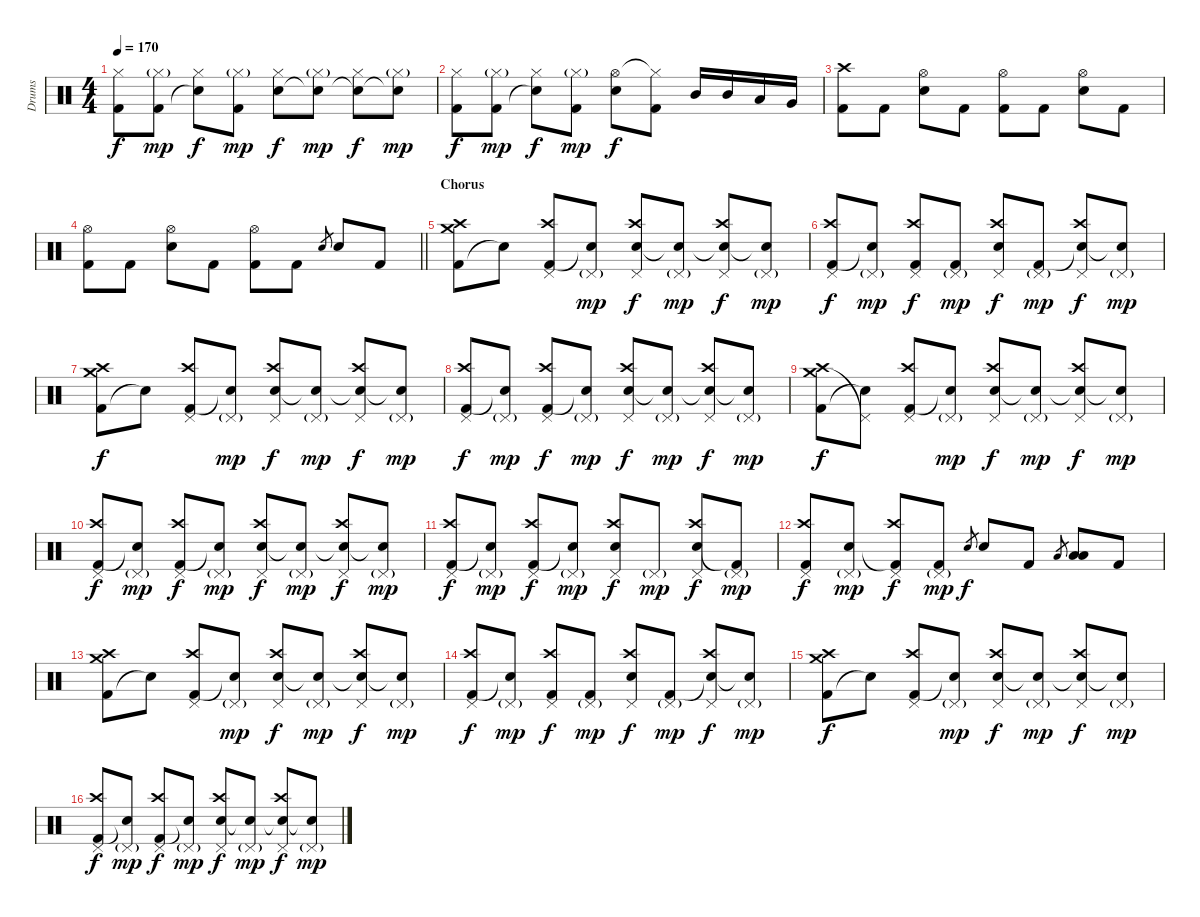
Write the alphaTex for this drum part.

\track ("Drums" "Drums") {instrument percussion}
\staff {score}
\articulation defaults
\ts (4 4)
\tempo 170
\clef neutral
\ks c
("Kick (hit) 2" "Hi-Hat (closed)").8{dy f} ("Kick (hit) 2" "Hi-Hat (closed)"{g}).8{dy mp} ("Electric Snare (hit)"{t} "Hi-Hat (closed)").8{dy f} ("Kick (hit) 2" "Hi-Hat (closed)"{g}).8{dy mp} ("Electric Snare (hit)" "Hi-Hat (closed)").8{dy f} ("Snare (hit)"{t} "Hi-Hat (closed)"{g}).8{dy mp} ("Snare (hit)"{t} "Hi-Hat (closed)").8{dy f} ("Snare (hit)"{t} "Hi-Hat (closed)"{g}).8{dy mp} |
("Kick (hit) 2" "Hi-Hat (closed)").8{dy f} ("Kick (hit) 2" "Hi-Hat (closed)"{g}).8{dy mp} ("Snare (hit)"{t} "Hi-Hat (closed)").8{dy f} ("Kick (hit) 2" "Hi-Hat (closed)"{g}).8{dy mp} ("Electric Snare (hit)" "Hi-Hat (open)").8{dy f} ("Kick (hit) 2" "Hi-Hat (closed)"{t}).8 "Mid Tom (hit)".16 "Mid Tom (hit)".16 "Low Tom (hit)".16 "Very Low Tom (hit)".16 |
("Kick (hit) 2" "Crash high (hit)").8 "Kick (hit) 2".8 ("Electric Snare (hit)" "Hi-Hat (open)").8 "Kick (hit) 2".8 ("Kick (hit) 2" "Hi-Hat (open)").8 "Kick (hit) 2".8 ("Electric Snare (hit)" "Hi-Hat (open)").8 "Kick (hit) 2".8 |
\barLineRight lightlight
("Kick (hit) 2" "Hi-Hat (open)").8 "Kick (hit) 2".8 ("Electric Snare (hit)" "Hi-Hat (open)").8 "Kick (hit) 2".8 ("Kick (hit) 2" "Hi-Hat (open)").8 "Kick (hit) 2".8 "Electric Snare (hit)".8{gr} "Electric Snare (hit)".8 "Kick (hit) 2".8 |
\section ("" "Chorus")
("Kick (hit) 2" "Crash medium (hit)" "Crash high (hit)").8 "Snare (hit)"{t}.8 ("Kick (hit) 2" "Pedal Hi-Hat (hit)" "Crash high (hit)").8 ("Snare (hit)"{t} "Pedal Hi-Hat (hit)"{g}).8{dy mp} ("Electric Snare (hit)" "Pedal Hi-Hat (hit)" "Crash high (hit)").8{dy f} ("Snare (hit)"{t} "Pedal Hi-Hat (hit)"{g}).8{dy mp} ("Snare (hit)"{t} "Pedal Hi-Hat (hit)" "Crash high (hit)").8{dy f} ("Snare (hit)"{t} "Pedal Hi-Hat (hit)"{g}).8{dy mp} |
("Kick (hit) 2" "Pedal Hi-Hat (hit)" "Crash high (hit)").8{dy f} ("Snare (hit)"{t} "Pedal Hi-Hat (hit)"{g}).8{dy mp} ("Kick (hit) 2" "Pedal Hi-Hat (hit)" "Crash high (hit)").8{dy f} ("Kick (hit) 2" "Pedal Hi-Hat (hit)"{g}).8{dy mp} ("Electric Snare (hit)" "Pedal Hi-Hat (hit)" "Crash high (hit)").8{dy f} ("Kick (hit) 2" "Pedal Hi-Hat (hit)"{g}).8{dy mp} ("Snare (hit)"{t} "Pedal Hi-Hat (hit)" "Crash high (hit)").8{dy f} ("Snare (hit)"{t} "Pedal Hi-Hat (hit)"{g}).8{dy mp} |
("Kick (hit) 2" "Crash medium (hit)" "Crash high (hit)").8{dy f} "Snare (hit)"{t}.8 ("Kick (hit) 2" "Pedal Hi-Hat (hit)" "Crash high (hit)").8 ("Snare (hit)"{t} "Pedal Hi-Hat (hit)"{g}).8{dy mp} ("Electric Snare (hit)" "Pedal Hi-Hat (hit)" "Crash high (hit)").8{dy f} ("Snare (hit)"{t} "Pedal Hi-Hat (hit)"{g}).8{dy mp} ("Snare (hit)"{t} "Pedal Hi-Hat (hit)" "Crash high (hit)").8{dy f} ("Snare (hit)"{t} "Pedal Hi-Hat (hit)"{g}).8{dy mp} |
("Kick (hit) 2" "Pedal Hi-Hat (hit)" "Crash high (hit)").8{dy f} ("Snare (hit)"{t} "Pedal Hi-Hat (hit)"{g}).8{dy mp} ("Kick (hit) 2" "Pedal Hi-Hat (hit)" "Crash high (hit)").8{dy f} ("Snare (hit)"{t} "Pedal Hi-Hat (hit)"{g}).8{dy mp} ("Electric Snare (hit)" "Pedal Hi-Hat (hit)" "Crash high (hit)").8{dy f} ("Snare (hit)"{t} "Pedal Hi-Hat (hit)"{g}).8{dy mp} ("Snare (hit)"{t} "Pedal Hi-Hat (hit)" "Crash high (hit)").8{dy f} ("Snare (hit)"{t} "Pedal Hi-Hat (hit)"{g}).8{dy mp} |
("Kick (hit) 2" "Crash medium (hit)" "Crash high (hit)").8{dy f} ("Snare (hit)"{t} "Pedal Hi-Hat (hit)"{t}).8 ("Kick (hit) 2" "Pedal Hi-Hat (hit)" "Crash high (hit)").8 ("Snare (hit)"{t} "Pedal Hi-Hat (hit)"{g}).8{dy mp} ("Electric Snare (hit)" "Pedal Hi-Hat (hit)" "Crash high (hit)").8{dy f} ("Snare (hit)"{t} "Pedal Hi-Hat (hit)"{g}).8{dy mp} ("Snare (hit)"{t} "Pedal Hi-Hat (hit)" "Crash high (hit)").8{dy f} ("Snare (hit)"{t} "Pedal Hi-Hat (hit)"{g}).8{dy mp} |
("Kick (hit) 2" "Pedal Hi-Hat (hit)" "Crash high (hit)").8{dy f} ("Snare (hit)"{t} "Pedal Hi-Hat (hit)"{g}).8{dy mp} ("Kick (hit) 2" "Pedal Hi-Hat (hit)" "Crash high (hit)").8{dy f} ("Snare (hit)"{t} "Pedal Hi-Hat (hit)"{g}).8{dy mp} ("Electric Snare (hit)" "Pedal Hi-Hat (hit)" "Crash high (hit)").8{dy f} ("Snare (hit)"{t} "Pedal Hi-Hat (hit)"{g}).8{dy mp} ("Snare (hit)"{t} "Pedal Hi-Hat (hit)" "Crash high (hit)").8{dy f} ("Snare (hit)"{t} "Pedal Hi-Hat (hit)"{g}).8{dy mp} |
("Kick (hit) 2" "Pedal Hi-Hat (hit)" "Crash high (hit)").8{dy f} ("Snare (hit)"{t} "Pedal Hi-Hat (hit)"{g}).8{dy mp} ("Kick (hit) 2" "Pedal Hi-Hat (hit)" "Crash high (hit)").8{dy f} ("Snare (hit)"{t} "Pedal Hi-Hat (hit)"{g}).8{dy mp} ("Electric Snare (hit)" "Pedal Hi-Hat (hit)" "Crash high (hit)").8{dy f} "Pedal Hi-Hat (hit)"{g}.8{dy mp} ("Electric Snare (hit)" "Pedal Hi-Hat (hit)" "Crash high (hit)").8{dy f} ("Kick (hit) 2"{t} "Pedal Hi-Hat (hit)"{g}).8{dy mp} |
("Kick (hit) 2" "Pedal Hi-Hat (hit)" "Crash high (hit)").8{dy f} ("Electric Snare (hit)" "Pedal Hi-Hat (hit)"{g}).8{dy mp} ("Kick (hit) 2"{t} "Pedal Hi-Hat (hit)" "Crash high (hit)").8{dy f} ("Kick (hit) 2" "Pedal Hi-Hat (hit)"{g}).8{dy mp} "Electric Snare (hit)".8{gr dy f} "Electric Snare (hit)".8 "Kick (hit) 2".8 "Low Tom (hit)".8{gr} ("Low Tom (hit)" "Low Floor Tom (hit)").8 "Kick (hit) 2".8 |
("Kick (hit) 2" "Crash medium (hit)" "Crash high (hit)").8 "Snare (hit)"{t}.8 ("Kick (hit) 2" "Pedal Hi-Hat (hit)" "Crash high (hit)").8 ("Snare (hit)"{t} "Pedal Hi-Hat (hit)"{g}).8{dy mp} ("Electric Snare (hit)" "Pedal Hi-Hat (hit)" "Crash high (hit)").8{dy f} ("Snare (hit)"{t} "Pedal Hi-Hat (hit)"{g}).8{dy mp} ("Snare (hit)"{t} "Pedal Hi-Hat (hit)" "Crash high (hit)").8{dy f} ("Snare (hit)"{t} "Pedal Hi-Hat (hit)"{g}).8{dy mp} |
("Kick (hit) 2" "Pedal Hi-Hat (hit)" "Crash high (hit)").8{dy f} ("Snare (hit)"{t} "Pedal Hi-Hat (hit)"{g}).8{dy mp} ("Kick (hit) 2" "Pedal Hi-Hat (hit)" "Crash high (hit)").8{dy f} ("Kick (hit) 2" "Pedal Hi-Hat (hit)"{g}).8{dy mp} ("Electric Snare (hit)" "Pedal Hi-Hat (hit)" "Crash high (hit)").8{dy f} ("Kick (hit) 2" "Pedal Hi-Hat (hit)"{g}).8{dy mp} ("Snare (hit)"{t} "Pedal Hi-Hat (hit)" "Crash high (hit)").8{dy f} ("Snare (hit)"{t} "Pedal Hi-Hat (hit)"{g}).8{dy mp} |
("Kick (hit) 2" "Crash medium (hit)" "Crash high (hit)").8{dy f} "Snare (hit)"{t}.8 ("Kick (hit) 2" "Pedal Hi-Hat (hit)" "Crash high (hit)").8 ("Snare (hit)"{t} "Pedal Hi-Hat (hit)"{g}).8{dy mp} ("Electric Snare (hit)" "Pedal Hi-Hat (hit)" "Crash high (hit)").8{dy f} ("Snare (hit)"{t} "Pedal Hi-Hat (hit)"{g}).8{dy mp} ("Snare (hit)"{t} "Pedal Hi-Hat (hit)" "Crash high (hit)").8{dy f} ("Snare (hit)"{t} "Pedal Hi-Hat (hit)"{g}).8{dy mp} |
("Kick (hit) 2" "Pedal Hi-Hat (hit)" "Crash high (hit)").8{dy f} ("Snare (hit)"{t} "Pedal Hi-Hat (hit)"{g}).8{dy mp} ("Kick (hit) 2" "Pedal Hi-Hat (hit)" "Crash high (hit)").8{dy f} ("Snare (hit)"{t} "Pedal Hi-Hat (hit)"{g}).8{dy mp} ("Electric Snare (hit)" "Pedal Hi-Hat (hit)" "Crash high (hit)").8{dy f} ("Snare (hit)"{t} "Pedal Hi-Hat (hit)"{g}).8{dy mp} ("Snare (hit)"{t} "Pedal Hi-Hat (hit)" "Crash high (hit)").8{dy f} ("Snare (hit)"{t} "Pedal Hi-Hat (hit)"{g}).8{dy mp}
